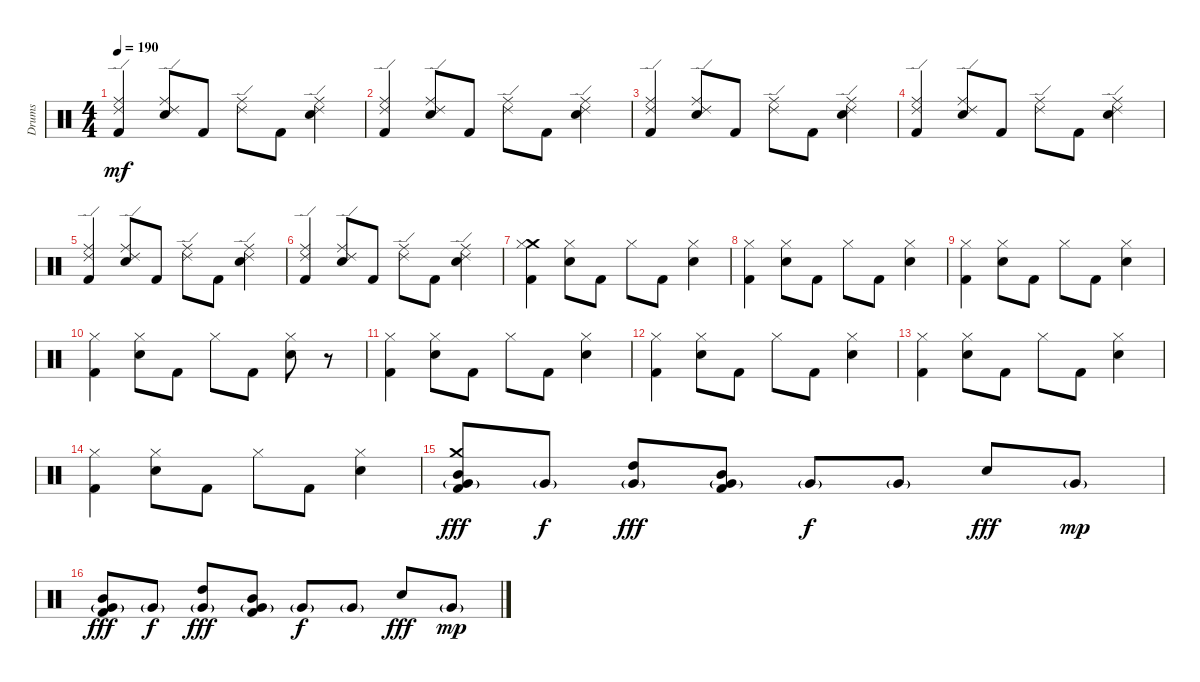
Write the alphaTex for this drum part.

\track ("Drums" "Drums") {instrument percussion}
\staff {score}
\articulation defaults
\ts (4 4)
\tempo 190
\clef neutral
\ks c
("Ride (edge) 2" "Ride (middle)" "Kick (hit) 2").4{dy mf} ("Ride (edge) 2" "Ride (middle)" "Snare (hit) 2").8 "Kick (hit) 2".8 ("Ride (edge) 2" "Ride (middle)").8 "Kick (hit) 2".8 ("Ride (edge) 2" "Ride (middle)" "Snare (hit) 2").4 |
("Ride (edge) 2" "Ride (middle)" "Kick (hit) 2").4 ("Ride (edge) 2" "Ride (middle)" "Snare (hit) 2").8 "Kick (hit) 2".8 ("Ride (edge) 2" "Ride (middle)").8 "Kick (hit) 2".8 ("Ride (edge) 2" "Ride (middle)" "Snare (hit) 2").4 |
("Ride (edge) 2" "Ride (middle)" "Kick (hit) 2").4 ("Ride (edge) 2" "Ride (middle)" "Snare (hit) 2").8 "Kick (hit) 2".8 ("Ride (edge) 2" "Ride (middle)").8 "Kick (hit) 2".8 ("Ride (edge) 2" "Ride (middle)" "Snare (hit) 2").4 |
("Ride (edge) 2" "Ride (middle)" "Kick (hit) 2").4 ("Ride (edge) 2" "Ride (middle)" "Snare (hit) 2").8 "Kick (hit) 2".8 ("Ride (edge) 2" "Ride (middle)").8 "Kick (hit) 2".8 ("Ride (edge) 2" "Ride (middle)" "Snare (hit) 2").4 |
("Ride (edge) 2" "Ride (middle)" "Kick (hit) 2").4 ("Ride (edge) 2" "Ride (middle)" "Snare (hit) 2").8 "Kick (hit) 2".8 ("Ride (edge) 2" "Ride (middle)").8 "Kick (hit) 2".8 ("Ride (edge) 2" "Ride (middle)" "Snare (hit) 2").4 |
("Ride (edge) 2" "Ride (middle)" "Kick (hit) 2").4 ("Ride (edge) 2" "Ride (middle)" "Snare (hit) 2").8 "Kick (hit) 2".8 ("Ride (edge) 2" "Ride (middle)").8 "Kick (hit) 2".8 ("Ride (edge) 2" "Ride (middle)" "Snare (hit) 2").4 |
("Crash medium (hit)" "Hi-Hat (closed)" "Kick (hit) 2").4 ("Hi-Hat (closed)" "Snare (hit) 2").8 "Kick (hit) 2".8 "Hi-Hat (closed)".8 "Kick (hit) 2".8 ("Hi-Hat (closed)" "Snare (hit) 2").4 |
("Hi-Hat (closed)" "Kick (hit) 2").4 ("Hi-Hat (closed)" "Snare (hit) 2").8 "Kick (hit) 2".8 "Hi-Hat (closed)".8 "Kick (hit) 2".8 ("Hi-Hat (closed)" "Snare (hit) 2").4 |
("Hi-Hat (closed)" "Kick (hit) 2").4 ("Hi-Hat (closed)" "Snare (hit) 2").8 "Kick (hit) 2".8 "Hi-Hat (closed)".8 "Kick (hit) 2".8 ("Hi-Hat (closed)" "Snare (hit) 2").4 |
("Hi-Hat (closed)" "Kick (hit) 2").4 ("Hi-Hat (closed)" "Snare (hit) 2").8 "Kick (hit) 2".8 "Hi-Hat (closed)".8 "Kick (hit) 2".8 ("Hi-Hat (closed)" "Snare (hit) 2").8 r.8 |
("Hi-Hat (closed)" "Kick (hit) 2").4 ("Hi-Hat (closed)" "Snare (hit) 2").8 "Kick (hit) 2".8 "Hi-Hat (closed)".8 "Kick (hit) 2".8 ("Hi-Hat (closed)" "Snare (hit) 2").4 |
("Hi-Hat (closed)" "Kick (hit) 2").4 ("Hi-Hat (closed)" "Snare (hit) 2").8 "Kick (hit) 2".8 "Hi-Hat (closed)".8 "Kick (hit) 2".8 ("Hi-Hat (closed)" "Snare (hit) 2").4 |
("Hi-Hat (closed)" "Kick (hit) 2").4 ("Hi-Hat (closed)" "Snare (hit) 2").8 "Kick (hit) 2".8 "Hi-Hat (closed)".8 "Kick (hit) 2".8 ("Hi-Hat (closed)" "Snare (hit) 2").4 |
("Hi-Hat (closed)" "Kick (hit) 2").4 ("Hi-Hat (closed)" "Snare (hit) 2").8 "Kick (hit) 2".8 "Hi-Hat (closed)".8 "Kick (hit) 2".8 ("Hi-Hat (closed)" "Snare (hit) 2").4 |
("Crash medium (hit)" "Mid Tom (hit)" "Very Low Tom (hit)"{g} "Kick (hit) 2").8{dy fff} "Very Low Tom (hit)"{g}.8{dy f} ("High Tom (hit)" "Very Low Tom (hit)"{g}).8{dy fff} ("Mid Tom (hit)" "Very Low Tom (hit)"{g} "Kick (hit) 2").8 "Very Low Tom (hit)"{g}.8{dy f} "Very Low Tom (hit)"{g}.8 "Electric Snare (hit)".8{dy fff} "Very Low Tom (hit)"{g}.8{dy mp} |
("Mid Tom (hit)" "Very Low Tom (hit)"{g} "Kick (hit) 2").8{dy fff} "Very Low Tom (hit)"{g}.8{dy f} ("High Tom (hit)" "Very Low Tom (hit)"{g}).8{dy fff} ("Mid Tom (hit)" "Very Low Tom (hit)"{g} "Kick (hit) 2").8 "Very Low Tom (hit)"{g}.8{dy f} "Very Low Tom (hit)"{g}.8 "Electric Snare (hit)".8{dy fff} "Very Low Tom (hit)"{g}.8{dy mp}
